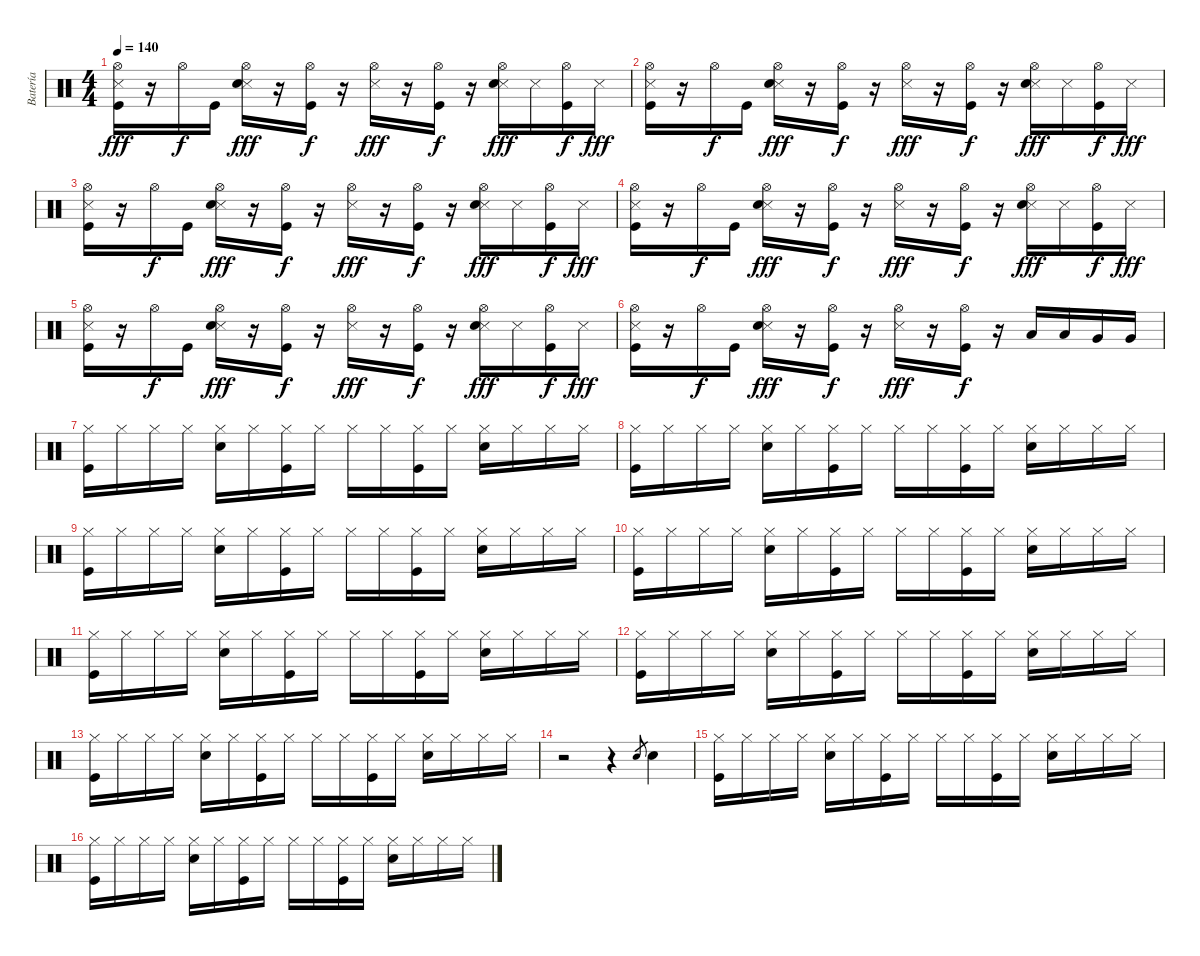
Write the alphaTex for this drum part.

\track ("Batería" "Batería") {instrument percussion}
\staff {score}
\articulation defaults
\ts (4 4)
\tempo 140
\clef neutral
\ks c
("Metronome (hit)" "Hi-Hat (open)" "Kick (hit)").16{dy fff} r.16 "Hi-Hat (open)".16{dy f} "Kick (hit)".16 ("Metronome (hit)" "Hi-Hat (open)" "Snare (hit) 2").16{dy fff} r.16 ("Hi-Hat (open)" "Kick (hit)").16{dy f} r.16 ("Metronome (hit)" "Hi-Hat (open)").16{dy fff} r.16 ("Hi-Hat (open)" "Kick (hit)").16{dy f} r.16 ("Metronome (hit)" "Hi-Hat (open)" "Snare (hit) 2").16{dy fff} "Metronome (hit)".16 ("Hi-Hat (open)" "Kick (hit)").16{dy f} "Metronome (hit)".16{dy fff} |
("Metronome (hit)" "Hi-Hat (open)" "Kick (hit)").16 r.16 "Hi-Hat (open)".16{dy f} "Kick (hit)".16 ("Metronome (hit)" "Hi-Hat (open)" "Snare (hit) 2").16{dy fff} r.16 ("Hi-Hat (open)" "Kick (hit)").16{dy f} r.16 ("Metronome (hit)" "Hi-Hat (open)").16{dy fff} r.16 ("Hi-Hat (open)" "Kick (hit)").16{dy f} r.16 ("Metronome (hit)" "Hi-Hat (open)" "Snare (hit) 2").16{dy fff} "Metronome (hit)".16 ("Hi-Hat (open)" "Kick (hit)").16{dy f} "Metronome (hit)".16{dy fff} |
("Metronome (hit)" "Hi-Hat (open)" "Kick (hit)").16 r.16 "Hi-Hat (open)".16{dy f} "Kick (hit)".16 ("Metronome (hit)" "Hi-Hat (open)" "Snare (hit) 2").16{dy fff} r.16 ("Hi-Hat (open)" "Kick (hit)").16{dy f} r.16 ("Metronome (hit)" "Hi-Hat (open)").16{dy fff} r.16 ("Hi-Hat (open)" "Kick (hit)").16{dy f} r.16 ("Metronome (hit)" "Hi-Hat (open)" "Snare (hit) 2").16{dy fff} "Metronome (hit)".16 ("Hi-Hat (open)" "Kick (hit)").16{dy f} "Metronome (hit)".16{dy fff} |
("Metronome (hit)" "Hi-Hat (open)" "Kick (hit)").16 r.16 "Hi-Hat (open)".16{dy f} "Kick (hit)".16 ("Metronome (hit)" "Hi-Hat (open)" "Snare (hit) 2").16{dy fff} r.16 ("Hi-Hat (open)" "Kick (hit)").16{dy f} r.16 ("Metronome (hit)" "Hi-Hat (open)").16{dy fff} r.16 ("Hi-Hat (open)" "Kick (hit)").16{dy f} r.16 ("Metronome (hit)" "Hi-Hat (open)" "Snare (hit) 2").16{dy fff} "Metronome (hit)".16 ("Hi-Hat (open)" "Kick (hit)").16{dy f} "Metronome (hit)".16{dy fff} |
("Metronome (hit)" "Hi-Hat (open)" "Kick (hit)").16 r.16 "Hi-Hat (open)".16{dy f} "Kick (hit)".16 ("Metronome (hit)" "Hi-Hat (open)" "Snare (hit) 2").16{dy fff} r.16 ("Hi-Hat (open)" "Kick (hit)").16{dy f} r.16 ("Metronome (hit)" "Hi-Hat (open)").16{dy fff} r.16 ("Hi-Hat (open)" "Kick (hit)").16{dy f} r.16 ("Metronome (hit)" "Hi-Hat (open)" "Snare (hit) 2").16{dy fff} "Metronome (hit)".16 ("Hi-Hat (open)" "Kick (hit)").16{dy f} "Metronome (hit)".16{dy fff} |
("Metronome (hit)" "Hi-Hat (open)" "Kick (hit)").16 r.16 "Hi-Hat (open)".16{dy f} "Kick (hit)".16 ("Metronome (hit)" "Hi-Hat (open)" "Snare (hit) 2").16{dy fff} r.16 ("Hi-Hat (open)" "Kick (hit)").16{dy f} r.16 ("Metronome (hit)" "Hi-Hat (open)").16{dy fff} r.16 ("Hi-Hat (open)" "Kick (hit)").16{dy f} r.16 "Low Tom (hit)".16 "Low Tom (hit)".16 "Very Low Tom (hit)".16 "Very Low Tom (hit)".16 |
("Hi-Hat (closed)" "Kick (hit)").16 "Hi-Hat (closed)".16 "Hi-Hat (closed)".16 "Hi-Hat (closed)".16 ("Hi-Hat (closed)" "Snare (hit) 2").16 "Hi-Hat (closed)".16 ("Hi-Hat (closed)" "Kick (hit)").16 "Hi-Hat (closed)".16 "Hi-Hat (closed)".16 "Hi-Hat (closed)".16 ("Hi-Hat (closed)" "Kick (hit)").16 "Hi-Hat (closed)".16 ("Hi-Hat (closed)" "Snare (hit) 2").16 "Hi-Hat (closed)".16 "Hi-Hat (closed)".16 "Hi-Hat (closed)".16 |
("Hi-Hat (closed)" "Kick (hit)").16 "Hi-Hat (closed)".16 "Hi-Hat (closed)".16 "Hi-Hat (closed)".16 ("Hi-Hat (closed)" "Snare (hit) 2").16 "Hi-Hat (closed)".16 ("Hi-Hat (closed)" "Kick (hit)").16 "Hi-Hat (closed)".16 "Hi-Hat (closed)".16 "Hi-Hat (closed)".16 ("Hi-Hat (closed)" "Kick (hit)").16 "Hi-Hat (closed)".16 ("Hi-Hat (closed)" "Snare (hit) 2").16 "Hi-Hat (closed)".16 "Hi-Hat (closed)".16 "Hi-Hat (closed)".16 |
("Hi-Hat (closed)" "Kick (hit)").16 "Hi-Hat (closed)".16 "Hi-Hat (closed)".16 "Hi-Hat (closed)".16 ("Hi-Hat (closed)" "Snare (hit) 2").16 "Hi-Hat (closed)".16 ("Hi-Hat (closed)" "Kick (hit)").16 "Hi-Hat (closed)".16 "Hi-Hat (closed)".16 "Hi-Hat (closed)".16 ("Hi-Hat (closed)" "Kick (hit)").16 "Hi-Hat (closed)".16 ("Hi-Hat (closed)" "Snare (hit) 2").16 "Hi-Hat (closed)".16 "Hi-Hat (closed)".16 "Hi-Hat (closed)".16 |
("Hi-Hat (closed)" "Kick (hit)").16 "Hi-Hat (closed)".16 "Hi-Hat (closed)".16 "Hi-Hat (closed)".16 ("Hi-Hat (closed)" "Snare (hit) 2").16 "Hi-Hat (closed)".16 ("Hi-Hat (closed)" "Kick (hit)").16 "Hi-Hat (closed)".16 "Hi-Hat (closed)".16 "Hi-Hat (closed)".16 ("Hi-Hat (closed)" "Kick (hit)").16 "Hi-Hat (closed)".16 ("Hi-Hat (closed)" "Snare (hit) 2").16 "Hi-Hat (closed)".16 "Hi-Hat (closed)".16 "Hi-Hat (closed)".16 |
("Hi-Hat (closed)" "Kick (hit)").16 "Hi-Hat (closed)".16 "Hi-Hat (closed)".16 "Hi-Hat (closed)".16 ("Hi-Hat (closed)" "Snare (hit) 2").16 "Hi-Hat (closed)".16 ("Hi-Hat (closed)" "Kick (hit)").16 "Hi-Hat (closed)".16 "Hi-Hat (closed)".16 "Hi-Hat (closed)".16 ("Hi-Hat (closed)" "Kick (hit)").16 "Hi-Hat (closed)".16 ("Hi-Hat (closed)" "Snare (hit) 2").16 "Hi-Hat (closed)".16 "Hi-Hat (closed)".16 "Hi-Hat (closed)".16 |
("Hi-Hat (closed)" "Kick (hit)").16 "Hi-Hat (closed)".16 "Hi-Hat (closed)".16 "Hi-Hat (closed)".16 ("Hi-Hat (closed)" "Snare (hit) 2").16 "Hi-Hat (closed)".16 ("Hi-Hat (closed)" "Kick (hit)").16 "Hi-Hat (closed)".16 "Hi-Hat (closed)".16 "Hi-Hat (closed)".16 ("Hi-Hat (closed)" "Kick (hit)").16 "Hi-Hat (closed)".16 ("Hi-Hat (closed)" "Snare (hit) 2").16 "Hi-Hat (closed)".16 "Hi-Hat (closed)".16 "Hi-Hat (closed)".16 |
("Hi-Hat (closed)" "Kick (hit)").16 "Hi-Hat (closed)".16 "Hi-Hat (closed)".16 "Hi-Hat (closed)".16 ("Hi-Hat (closed)" "Snare (hit) 2").16 "Hi-Hat (closed)".16 ("Hi-Hat (closed)" "Kick (hit)").16 "Hi-Hat (closed)".16 "Hi-Hat (closed)".16 "Hi-Hat (closed)".16 ("Hi-Hat (closed)" "Kick (hit)").16 "Hi-Hat (closed)".16 ("Hi-Hat (closed)" "Snare (hit) 2").16 "Hi-Hat (closed)".16 "Hi-Hat (closed)".16 "Hi-Hat (closed)".16 |
r.2 r.4 "Snare (hit) 2".8{gr} "Snare (hit) 2".4 |
("Hi-Hat (closed)" "Kick (hit)").16 "Hi-Hat (closed)".16 "Hi-Hat (closed)".16 "Hi-Hat (closed)".16 ("Hi-Hat (closed)" "Snare (hit) 2").16 "Hi-Hat (closed)".16 ("Hi-Hat (closed)" "Kick (hit)").16 "Hi-Hat (closed)".16 "Hi-Hat (closed)".16 "Hi-Hat (closed)".16 ("Hi-Hat (closed)" "Kick (hit)").16 "Hi-Hat (closed)".16 ("Hi-Hat (closed)" "Snare (hit) 2").16 "Hi-Hat (closed)".16 "Hi-Hat (closed)".16 "Hi-Hat (closed)".16 |
("Hi-Hat (closed)" "Kick (hit)").16 "Hi-Hat (closed)".16 "Hi-Hat (closed)".16 "Hi-Hat (closed)".16 ("Hi-Hat (closed)" "Snare (hit) 2").16 "Hi-Hat (closed)".16 ("Hi-Hat (closed)" "Kick (hit)").16 "Hi-Hat (closed)".16 "Hi-Hat (closed)".16 "Hi-Hat (closed)".16 ("Hi-Hat (closed)" "Kick (hit)").16 "Hi-Hat (closed)".16 ("Hi-Hat (closed)" "Snare (hit) 2").16 "Hi-Hat (closed)".16 "Hi-Hat (closed)".16 "Hi-Hat (closed)".16
